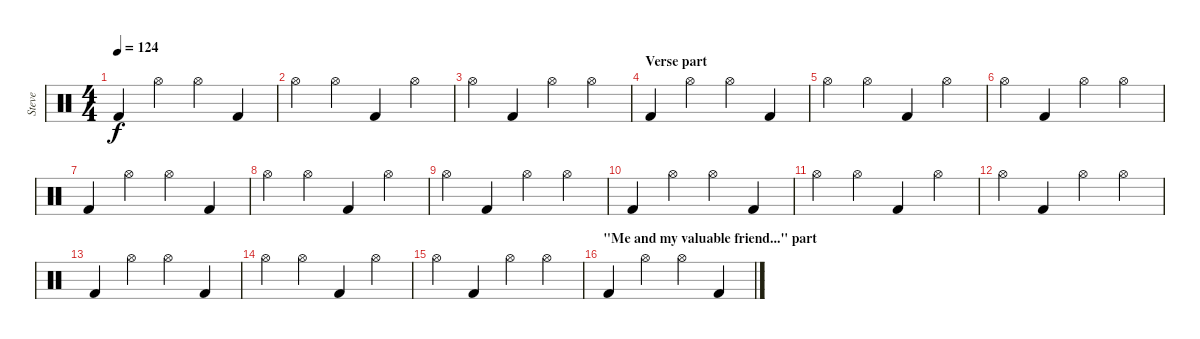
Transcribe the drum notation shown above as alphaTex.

\track ("Steve" "Steve") {instrument percussion}
\staff {score}
\articulation defaults
\ts (4 4)
\tempo 124
\clef neutral
\ks c "Kick (hit) 2".4{dy f} "Hi-Hat (open)".4 "Hi-Hat (open)".4 "Kick (hit) 2".4
|
"Hi-Hat (open)".4 "Hi-Hat (open)".4 "Kick (hit) 2".4 "Hi-Hat (open)".4 |
"Hi-Hat (open)".4 "Kick (hit) 2".4 "Hi-Hat (open)".4 "Hi-Hat (open)".4 |
\section ("" "Verse part")
"Kick (hit) 2".4 "Hi-Hat (open)".4 "Hi-Hat (open)".4 "Kick (hit) 2".4 |
"Hi-Hat (open)".4 "Hi-Hat (open)".4 "Kick (hit) 2".4 "Hi-Hat (open)".4 |
"Hi-Hat (open)".4 "Kick (hit) 2".4 "Hi-Hat (open)".4 "Hi-Hat (open)".4 |
"Kick (hit) 2".4 "Hi-Hat (open)".4 "Hi-Hat (open)".4 "Kick (hit) 2".4 |
"Hi-Hat (open)".4 "Hi-Hat (open)".4 "Kick (hit) 2".4 "Hi-Hat (open)".4 |
"Hi-Hat (open)".4 "Kick (hit) 2".4 "Hi-Hat (open)".4 "Hi-Hat (open)".4 |
"Kick (hit) 2".4 "Hi-Hat (open)".4 "Hi-Hat (open)".4 "Kick (hit) 2".4 |
"Hi-Hat (open)".4 "Hi-Hat (open)".4 "Kick (hit) 2".4 "Hi-Hat (open)".4 |
"Hi-Hat (open)".4 "Kick (hit) 2".4 "Hi-Hat (open)".4 "Hi-Hat (open)".4 |
"Kick (hit) 2".4 "Hi-Hat (open)".4 "Hi-Hat (open)".4 "Kick (hit) 2".4 |
"Hi-Hat (open)".4 "Hi-Hat (open)".4 "Kick (hit) 2".4 "Hi-Hat (open)".4 |
"Hi-Hat (open)".4 "Kick (hit) 2".4 "Hi-Hat (open)".4 "Hi-Hat (open)".4 |
\section ("" "\"Me and my valuable friend...\" part")
"Kick (hit) 2".4 "Hi-Hat (open)".4 "Hi-Hat (open)".4 "Kick (hit) 2".4
